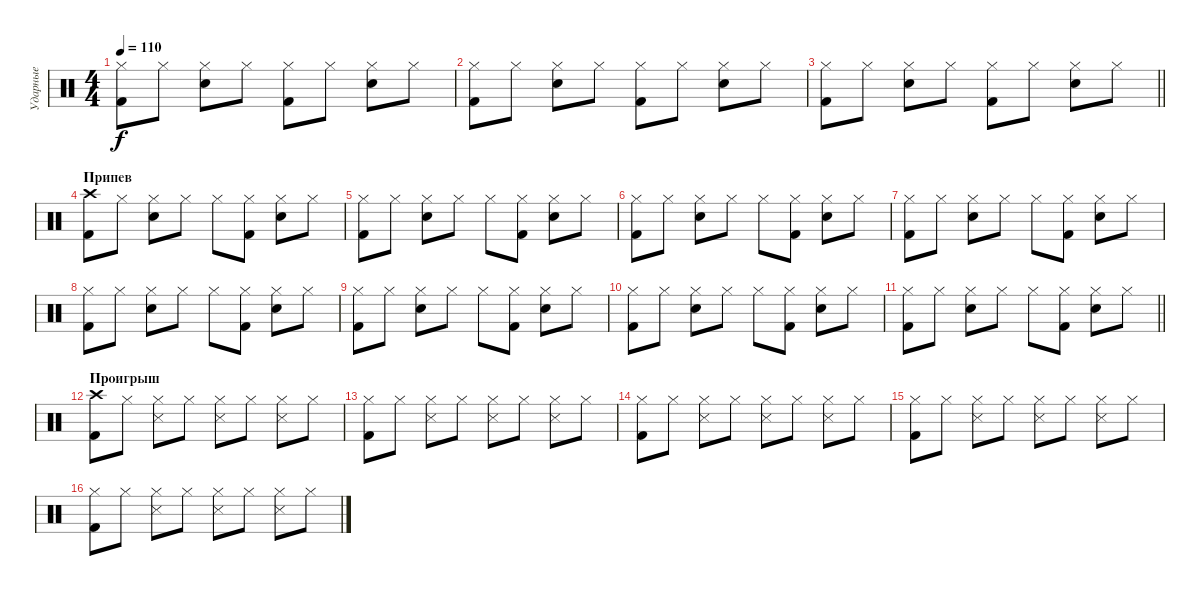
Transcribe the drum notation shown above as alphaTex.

\track ("Ударные" "Ударные") {instrument percussion}
\staff {score}
\articulation defaults
\ts (4 4)
\tempo 110
\clef neutral
\ks c
("Kick (hit) 2" "Hi-Hat (closed)").8{dy f} "Hi-Hat (closed)".8 ("Snare (hit) 2" "Hi-Hat (closed)").8 "Hi-Hat (closed)".8 ("Kick (hit) 2" "Hi-Hat (closed)").8 "Hi-Hat (closed)".8 ("Snare (hit) 2" "Hi-Hat (closed)").8 "Hi-Hat (closed)".8 |
("Kick (hit) 2" "Hi-Hat (closed)").8 "Hi-Hat (closed)".8 ("Snare (hit) 2" "Hi-Hat (closed)").8 "Hi-Hat (closed)".8 ("Kick (hit) 2" "Hi-Hat (closed)").8 "Hi-Hat (closed)".8 ("Snare (hit) 2" "Hi-Hat (closed)").8 "Hi-Hat (closed)".8 |
\barLineRight lightlight
("Kick (hit) 2" "Hi-Hat (closed)").8 "Hi-Hat (closed)".8 ("Snare (hit) 2" "Hi-Hat (closed)").8 "Hi-Hat (closed)".8 ("Kick (hit) 2" "Hi-Hat (closed)").8 "Hi-Hat (closed)".8 ("Snare (hit) 2" "Hi-Hat (closed)").8 "Hi-Hat (closed)".8 |
\section ("" "Припев")
("Kick (hit) 2" "Crash high (hit)").8 "Hi-Hat (closed)".8 ("Snare (hit) 2" "Hi-Hat (closed)").8 "Hi-Hat (closed)".8 "Hi-Hat (closed)".8 ("Kick (hit) 2" "Hi-Hat (closed)").8 ("Snare (hit) 2" "Hi-Hat (closed)").8 "Hi-Hat (closed)".8 |
("Kick (hit) 2" "Hi-Hat (closed)").8 "Hi-Hat (closed)".8 ("Snare (hit) 2" "Hi-Hat (closed)").8 "Hi-Hat (closed)".8 "Hi-Hat (closed)".8 ("Kick (hit) 2" "Hi-Hat (closed)").8 ("Snare (hit) 2" "Hi-Hat (closed)").8 "Hi-Hat (closed)".8 |
("Kick (hit) 2" "Hi-Hat (closed)").8 "Hi-Hat (closed)".8 ("Snare (hit) 2" "Hi-Hat (closed)").8 "Hi-Hat (closed)".8 "Hi-Hat (closed)".8 ("Kick (hit) 2" "Hi-Hat (closed)").8 ("Snare (hit) 2" "Hi-Hat (closed)").8 "Hi-Hat (closed)".8 |
("Kick (hit) 2" "Hi-Hat (closed)").8 "Hi-Hat (closed)".8 ("Snare (hit) 2" "Hi-Hat (closed)").8 "Hi-Hat (closed)".8 "Hi-Hat (closed)".8 ("Kick (hit) 2" "Hi-Hat (closed)").8 ("Snare (hit) 2" "Hi-Hat (closed)").8 "Hi-Hat (closed)".8 |
("Kick (hit) 2" "Hi-Hat (closed)").8 "Hi-Hat (closed)".8 ("Snare (hit) 2" "Hi-Hat (closed)").8 "Hi-Hat (closed)".8 "Hi-Hat (closed)".8 ("Kick (hit) 2" "Hi-Hat (closed)").8 ("Snare (hit) 2" "Hi-Hat (closed)").8 "Hi-Hat (closed)".8 |
("Kick (hit) 2" "Hi-Hat (closed)").8 "Hi-Hat (closed)".8 ("Snare (hit) 2" "Hi-Hat (closed)").8 "Hi-Hat (closed)".8 "Hi-Hat (closed)".8 ("Kick (hit) 2" "Hi-Hat (closed)").8 ("Snare (hit) 2" "Hi-Hat (closed)").8 "Hi-Hat (closed)".8 |
("Kick (hit) 2" "Hi-Hat (closed)").8 "Hi-Hat (closed)".8 ("Snare (hit) 2" "Hi-Hat (closed)").8 "Hi-Hat (closed)".8 "Hi-Hat (closed)".8 ("Kick (hit) 2" "Hi-Hat (closed)").8 ("Snare (hit) 2" "Hi-Hat (closed)").8 "Hi-Hat (closed)".8 |
\barLineRight lightlight
("Kick (hit) 2" "Hi-Hat (closed)").8 "Hi-Hat (closed)".8 ("Snare (hit) 2" "Hi-Hat (closed)").8 "Hi-Hat (closed)".8 "Hi-Hat (closed)".8 ("Kick (hit) 2" "Hi-Hat (closed)").8 ("Snare (hit) 2" "Hi-Hat (closed)").8 "Hi-Hat (closed)".8 |
\section ("" "Проигрыш")
("Kick (hit) 2" "Crash high (hit)").8 "Hi-Hat (closed)".8 ("Snare (side stick) 3" "Hi-Hat (closed)").8 "Hi-Hat (closed)".8 ("Snare (side stick) 3" "Hi-Hat (closed)").8 "Hi-Hat (closed)".8 ("Snare (side stick) 3" "Hi-Hat (closed)").8 "Hi-Hat (closed)".8 |
("Kick (hit) 2" "Hi-Hat (closed)").8 "Hi-Hat (closed)".8 ("Snare (side stick) 3" "Hi-Hat (closed)").8 "Hi-Hat (closed)".8 ("Snare (side stick) 3" "Hi-Hat (closed)").8 "Hi-Hat (closed)".8 ("Snare (side stick) 3" "Hi-Hat (closed)").8 "Hi-Hat (closed)".8 |
("Kick (hit) 2" "Hi-Hat (closed)").8 "Hi-Hat (closed)".8 ("Snare (side stick) 3" "Hi-Hat (closed)").8 "Hi-Hat (closed)".8 ("Snare (side stick) 3" "Hi-Hat (closed)").8 "Hi-Hat (closed)".8 ("Snare (side stick) 3" "Hi-Hat (closed)").8 "Hi-Hat (closed)".8 |
("Kick (hit) 2" "Hi-Hat (closed)").8 "Hi-Hat (closed)".8 ("Snare (side stick) 3" "Hi-Hat (closed)").8 "Hi-Hat (closed)".8 ("Snare (side stick) 3" "Hi-Hat (closed)").8 "Hi-Hat (closed)".8 ("Snare (side stick) 3" "Hi-Hat (closed)").8 "Hi-Hat (closed)".8 |
("Kick (hit) 2" "Hi-Hat (closed)").8 "Hi-Hat (closed)".8 ("Snare (side stick) 3" "Hi-Hat (closed)").8 "Hi-Hat (closed)".8 ("Snare (side stick) 3" "Hi-Hat (closed)").8 "Hi-Hat (closed)".8 ("Snare (side stick) 3" "Hi-Hat (closed)").8 "Hi-Hat (closed)".8
